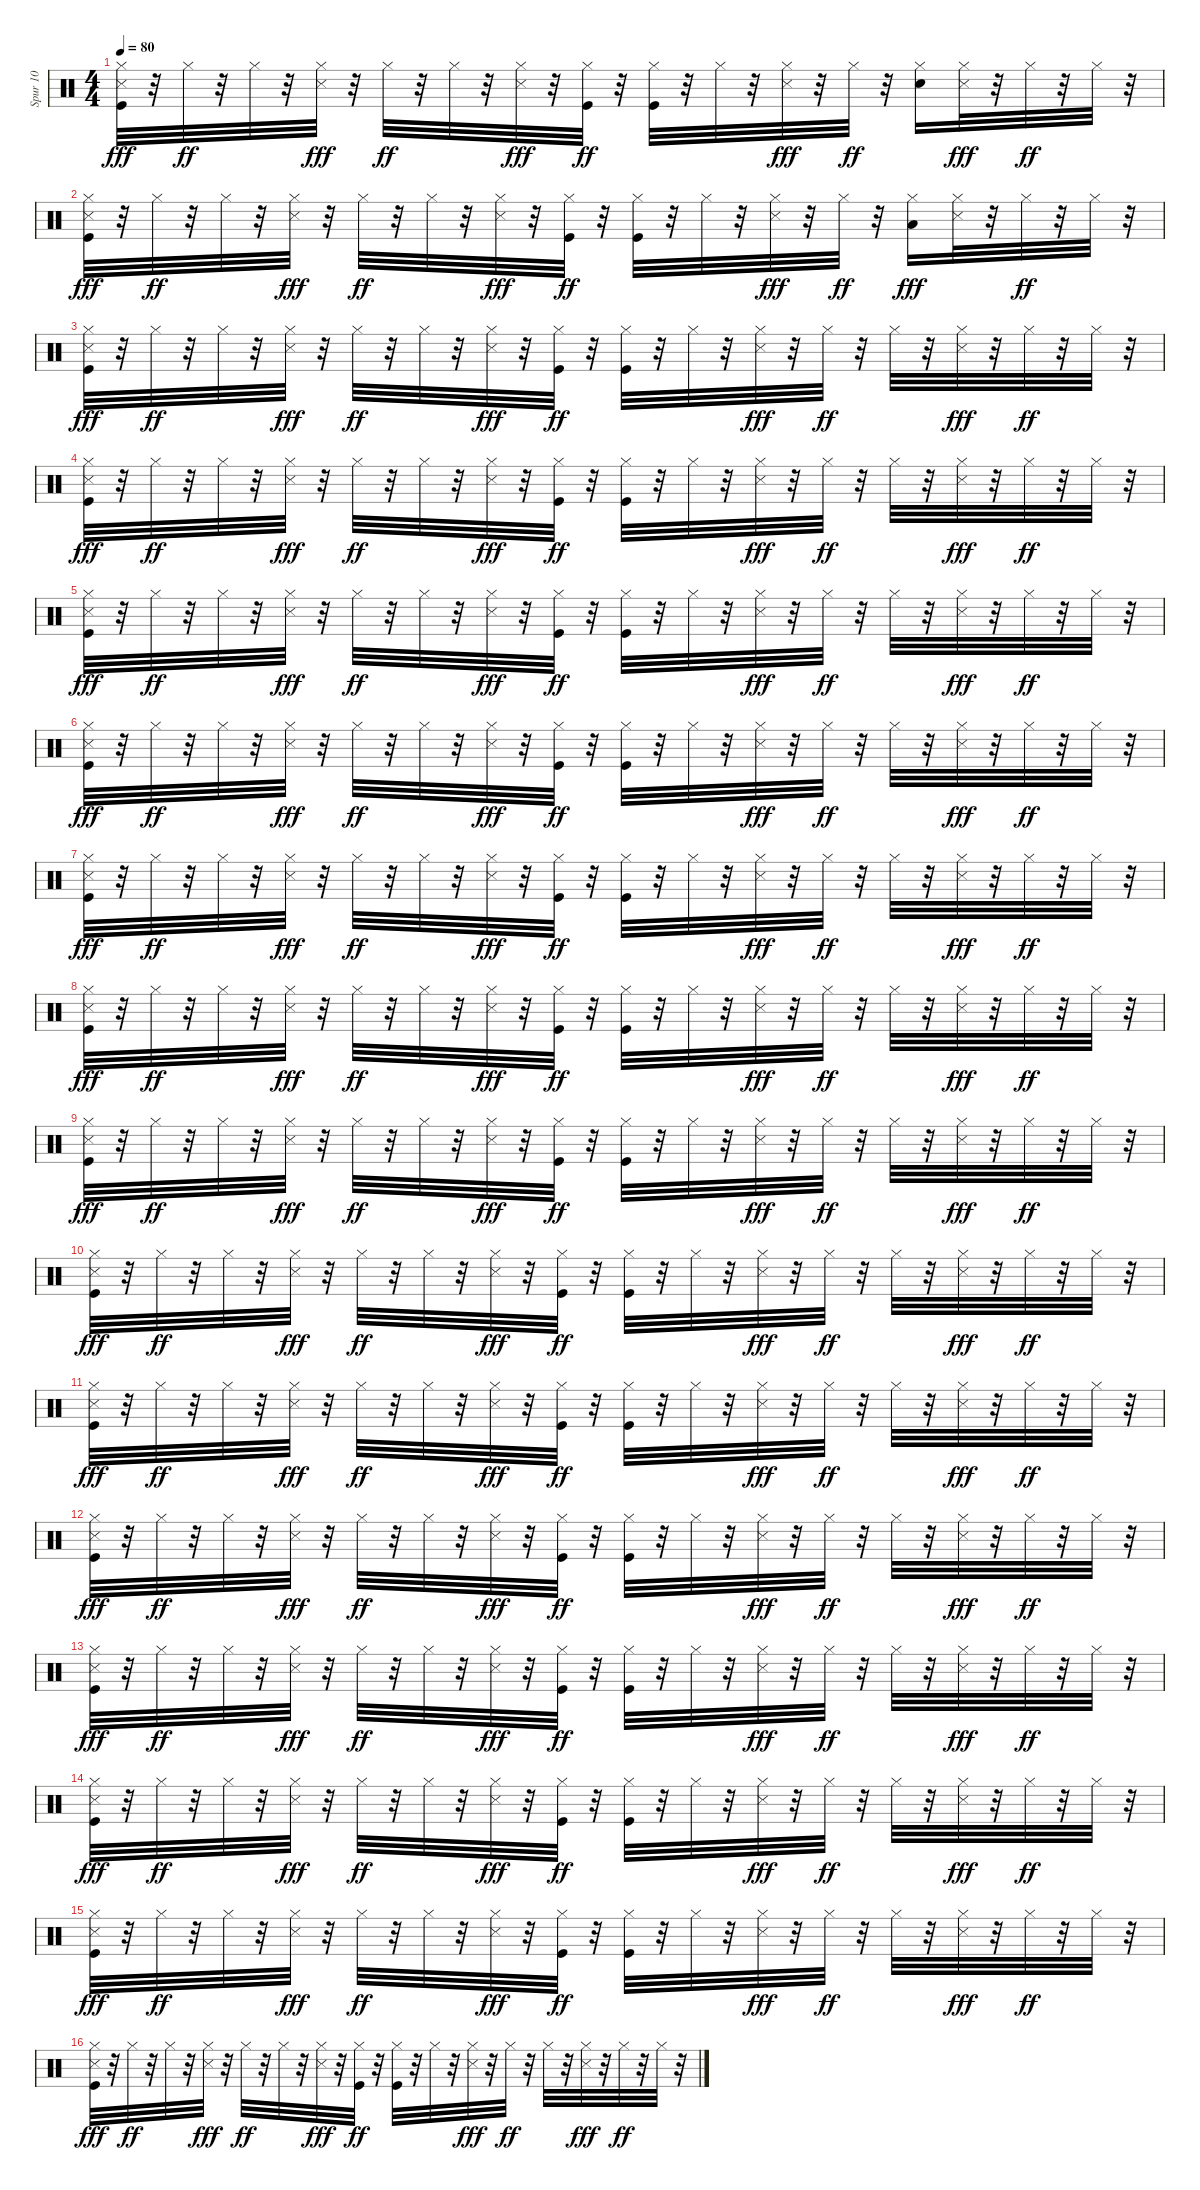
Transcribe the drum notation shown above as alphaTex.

\track ("Spur 10" "Spur 10") {instrument percussion}
\staff {score}
\articulation defaults
\ts (4 4)
\tempo 80
\clef neutral
\ks c
("Kick (hit)" "Hi-Hat (closed)" "Snare (side stick) 3").32{dy fff} r.32 "Hi-Hat (closed)".32{dy ff} r.32 "Hi-Hat (closed)".32 r.32 ("Hi-Hat (closed)" "Snare (side stick) 3").32{dy fff} r.32 "Hi-Hat (closed)".32{dy ff} r.32 "Hi-Hat (closed)".32 r.32 ("Hi-Hat (closed)" "Snare (side stick) 3").32{dy fff} r.32 ("Kick (hit)" "Hi-Hat (closed)").32{dy ff} r.32 ("Kick (hit)" "Hi-Hat (closed)").32 r.32 "Hi-Hat (closed)".32 r.32 ("Hi-Hat (closed)" "Snare (side stick) 3").32{dy fff} r.32 "Hi-Hat (closed)".32{dy ff} r.32 ("Snare (hit) 2" "Hi-Hat (closed)").16 ("Hi-Hat (closed)" "Snare (side stick) 3").32{dy fff} r.32 "Hi-Hat (closed)".32{dy ff} r.32 "Hi-Hat (closed)".32 r.32 |
("Kick (hit)" "Hi-Hat (closed)" "Snare (side stick) 3").32{dy fff} r.32 "Hi-Hat (closed)".32{dy ff} r.32 "Hi-Hat (closed)".32 r.32 ("Hi-Hat (closed)" "Snare (side stick) 3").32{dy fff} r.32 "Hi-Hat (closed)".32{dy ff} r.32 "Hi-Hat (closed)".32 r.32 ("Hi-Hat (closed)" "Snare (side stick) 3").32{dy fff} r.32 ("Kick (hit)" "Hi-Hat (closed)").32{dy ff} r.32 ("Kick (hit)" "Hi-Hat (closed)").32 r.32 "Hi-Hat (closed)".32 r.32 ("Hi-Hat (closed)" "Snare (side stick) 3").32{dy fff} r.32 "Hi-Hat (closed)".32{dy ff} r.32 ("Hi-Hat (closed)" "Low Floor Tom (hit)").16{dy fff} ("Hi-Hat (closed)" "Snare (side stick) 3").32 r.32 "Hi-Hat (closed)".32{dy ff} r.32 "Hi-Hat (closed)".32 r.32 |
("Kick (hit)" "Hi-Hat (closed)" "Snare (side stick) 3").32{dy fff} r.32 "Hi-Hat (closed)".32{dy ff} r.32 "Hi-Hat (closed)".32 r.32 ("Hi-Hat (closed)" "Snare (side stick) 3").32{dy fff} r.32 "Hi-Hat (closed)".32{dy ff} r.32 "Hi-Hat (closed)".32 r.32 ("Hi-Hat (closed)" "Snare (side stick) 3").32{dy fff} r.32 ("Kick (hit)" "Hi-Hat (closed)").32{dy ff} r.32 ("Kick (hit)" "Hi-Hat (closed)").32 r.32 "Hi-Hat (closed)".32 r.32 ("Hi-Hat (closed)" "Snare (side stick) 3").32{dy fff} r.32 "Hi-Hat (closed)".32{dy ff} r.32 "Hi-Hat (closed)".32 r.32 ("Hi-Hat (closed)" "Snare (side stick) 3").32{dy fff} r.32 "Hi-Hat (closed)".32{dy ff} r.32 "Hi-Hat (closed)".32 r.32 |
("Kick (hit)" "Hi-Hat (closed)" "Snare (side stick) 3").32{dy fff} r.32 "Hi-Hat (closed)".32{dy ff} r.32 "Hi-Hat (closed)".32 r.32 ("Hi-Hat (closed)" "Snare (side stick) 3").32{dy fff} r.32 "Hi-Hat (closed)".32{dy ff} r.32 "Hi-Hat (closed)".32 r.32 ("Hi-Hat (closed)" "Snare (side stick) 3").32{dy fff} r.32 ("Kick (hit)" "Hi-Hat (closed)").32{dy ff} r.32 ("Kick (hit)" "Hi-Hat (closed)").32 r.32 "Hi-Hat (closed)".32 r.32 ("Hi-Hat (closed)" "Snare (side stick) 3").32{dy fff} r.32 "Hi-Hat (closed)".32{dy ff} r.32 "Hi-Hat (closed)".32 r.32 ("Hi-Hat (closed)" "Snare (side stick) 3").32{dy fff} r.32 "Hi-Hat (closed)".32{dy ff} r.32 "Hi-Hat (closed)".32 r.32 |
("Kick (hit)" "Hi-Hat (closed)" "Snare (side stick) 3").32{dy fff} r.32 "Hi-Hat (closed)".32{dy ff} r.32 "Hi-Hat (closed)".32 r.32 ("Hi-Hat (closed)" "Snare (side stick) 3").32{dy fff} r.32 "Hi-Hat (closed)".32{dy ff} r.32 "Hi-Hat (closed)".32 r.32 ("Hi-Hat (closed)" "Snare (side stick) 3").32{dy fff} r.32 ("Kick (hit)" "Hi-Hat (closed)").32{dy ff} r.32 ("Kick (hit)" "Hi-Hat (closed)").32 r.32 "Hi-Hat (closed)".32 r.32 ("Hi-Hat (closed)" "Snare (side stick) 3").32{dy fff} r.32 "Hi-Hat (closed)".32{dy ff} r.32 "Hi-Hat (closed)".32 r.32 ("Hi-Hat (closed)" "Snare (side stick) 3").32{dy fff} r.32 "Hi-Hat (closed)".32{dy ff} r.32 "Hi-Hat (closed)".32 r.32 |
("Kick (hit)" "Hi-Hat (closed)" "Snare (side stick) 3").32{dy fff} r.32 "Hi-Hat (closed)".32{dy ff} r.32 "Hi-Hat (closed)".32 r.32 ("Hi-Hat (closed)" "Snare (side stick) 3").32{dy fff} r.32 "Hi-Hat (closed)".32{dy ff} r.32 "Hi-Hat (closed)".32 r.32 ("Hi-Hat (closed)" "Snare (side stick) 3").32{dy fff} r.32 ("Kick (hit)" "Hi-Hat (closed)").32{dy ff} r.32 ("Kick (hit)" "Hi-Hat (closed)").32 r.32 "Hi-Hat (closed)".32 r.32 ("Hi-Hat (closed)" "Snare (side stick) 3").32{dy fff} r.32 "Hi-Hat (closed)".32{dy ff} r.32 "Hi-Hat (closed)".32 r.32 ("Hi-Hat (closed)" "Snare (side stick) 3").32{dy fff} r.32 "Hi-Hat (closed)".32{dy ff} r.32 "Hi-Hat (closed)".32 r.32 |
("Kick (hit)" "Hi-Hat (closed)" "Snare (side stick) 3").32{dy fff} r.32 "Hi-Hat (closed)".32{dy ff} r.32 "Hi-Hat (closed)".32 r.32 ("Hi-Hat (closed)" "Snare (side stick) 3").32{dy fff} r.32 "Hi-Hat (closed)".32{dy ff} r.32 "Hi-Hat (closed)".32 r.32 ("Hi-Hat (closed)" "Snare (side stick) 3").32{dy fff} r.32 ("Kick (hit)" "Hi-Hat (closed)").32{dy ff} r.32 ("Kick (hit)" "Hi-Hat (closed)").32 r.32 "Hi-Hat (closed)".32 r.32 ("Hi-Hat (closed)" "Snare (side stick) 3").32{dy fff} r.32 "Hi-Hat (closed)".32{dy ff} r.32 "Hi-Hat (closed)".32 r.32 ("Hi-Hat (closed)" "Snare (side stick) 3").32{dy fff} r.32 "Hi-Hat (closed)".32{dy ff} r.32 "Hi-Hat (closed)".32 r.32 |
("Kick (hit)" "Hi-Hat (closed)" "Snare (side stick) 3").32{dy fff} r.32 "Hi-Hat (closed)".32{dy ff} r.32 "Hi-Hat (closed)".32 r.32 ("Hi-Hat (closed)" "Snare (side stick) 3").32{dy fff} r.32 "Hi-Hat (closed)".32{dy ff} r.32 "Hi-Hat (closed)".32 r.32 ("Hi-Hat (closed)" "Snare (side stick) 3").32{dy fff} r.32 ("Kick (hit)" "Hi-Hat (closed)").32{dy ff} r.32 ("Kick (hit)" "Hi-Hat (closed)").32 r.32 "Hi-Hat (closed)".32 r.32 ("Hi-Hat (closed)" "Snare (side stick) 3").32{dy fff} r.32 "Hi-Hat (closed)".32{dy ff} r.32 "Hi-Hat (closed)".32 r.32 ("Hi-Hat (closed)" "Snare (side stick) 3").32{dy fff} r.32 "Hi-Hat (closed)".32{dy ff} r.32 "Hi-Hat (closed)".32 r.32 |
("Kick (hit)" "Hi-Hat (closed)" "Snare (side stick) 3").32{dy fff} r.32 "Hi-Hat (closed)".32{dy ff} r.32 "Hi-Hat (closed)".32 r.32 ("Hi-Hat (closed)" "Snare (side stick) 3").32{dy fff} r.32 "Hi-Hat (closed)".32{dy ff} r.32 "Hi-Hat (closed)".32 r.32 ("Hi-Hat (closed)" "Snare (side stick) 3").32{dy fff} r.32 ("Kick (hit)" "Hi-Hat (closed)").32{dy ff} r.32 ("Kick (hit)" "Hi-Hat (closed)").32 r.32 "Hi-Hat (closed)".32 r.32 ("Hi-Hat (closed)" "Snare (side stick) 3").32{dy fff} r.32 "Hi-Hat (closed)".32{dy ff} r.32 "Hi-Hat (closed)".32 r.32 ("Hi-Hat (closed)" "Snare (side stick) 3").32{dy fff} r.32 "Hi-Hat (closed)".32{dy ff} r.32 "Hi-Hat (closed)".32 r.32 |
("Kick (hit)" "Hi-Hat (closed)" "Snare (side stick) 3").32{dy fff} r.32 "Hi-Hat (closed)".32{dy ff} r.32 "Hi-Hat (closed)".32 r.32 ("Hi-Hat (closed)" "Snare (side stick) 3").32{dy fff} r.32 "Hi-Hat (closed)".32{dy ff} r.32 "Hi-Hat (closed)".32 r.32 ("Hi-Hat (closed)" "Snare (side stick) 3").32{dy fff} r.32 ("Kick (hit)" "Hi-Hat (closed)").32{dy ff} r.32 ("Kick (hit)" "Hi-Hat (closed)").32 r.32 "Hi-Hat (closed)".32 r.32 ("Hi-Hat (closed)" "Snare (side stick) 3").32{dy fff} r.32 "Hi-Hat (closed)".32{dy ff} r.32 "Hi-Hat (closed)".32 r.32 ("Hi-Hat (closed)" "Snare (side stick) 3").32{dy fff} r.32 "Hi-Hat (closed)".32{dy ff} r.32 "Hi-Hat (closed)".32 r.32 |
("Kick (hit)" "Hi-Hat (closed)" "Snare (side stick) 3").32{dy fff} r.32 "Hi-Hat (closed)".32{dy ff} r.32 "Hi-Hat (closed)".32 r.32 ("Hi-Hat (closed)" "Snare (side stick) 3").32{dy fff} r.32 "Hi-Hat (closed)".32{dy ff} r.32 "Hi-Hat (closed)".32 r.32 ("Hi-Hat (closed)" "Snare (side stick) 3").32{dy fff} r.32 ("Kick (hit)" "Hi-Hat (closed)").32{dy ff} r.32 ("Kick (hit)" "Hi-Hat (closed)").32 r.32 "Hi-Hat (closed)".32 r.32 ("Hi-Hat (closed)" "Snare (side stick) 3").32{dy fff} r.32 "Hi-Hat (closed)".32{dy ff} r.32 "Hi-Hat (closed)".32 r.32 ("Hi-Hat (closed)" "Snare (side stick) 3").32{dy fff} r.32 "Hi-Hat (closed)".32{dy ff} r.32 "Hi-Hat (closed)".32 r.32 |
("Kick (hit)" "Hi-Hat (closed)" "Snare (side stick) 3").32{dy fff} r.32 "Hi-Hat (closed)".32{dy ff} r.32 "Hi-Hat (closed)".32 r.32 ("Hi-Hat (closed)" "Snare (side stick) 3").32{dy fff} r.32 "Hi-Hat (closed)".32{dy ff} r.32 "Hi-Hat (closed)".32 r.32 ("Hi-Hat (closed)" "Snare (side stick) 3").32{dy fff} r.32 ("Kick (hit)" "Hi-Hat (closed)").32{dy ff} r.32 ("Kick (hit)" "Hi-Hat (closed)").32 r.32 "Hi-Hat (closed)".32 r.32 ("Hi-Hat (closed)" "Snare (side stick) 3").32{dy fff} r.32 "Hi-Hat (closed)".32{dy ff} r.32 "Hi-Hat (closed)".32 r.32 ("Hi-Hat (closed)" "Snare (side stick) 3").32{dy fff} r.32 "Hi-Hat (closed)".32{dy ff} r.32 "Hi-Hat (closed)".32 r.32 |
("Kick (hit)" "Hi-Hat (closed)" "Snare (side stick) 3").32{dy fff} r.32 "Hi-Hat (closed)".32{dy ff} r.32 "Hi-Hat (closed)".32 r.32 ("Hi-Hat (closed)" "Snare (side stick) 3").32{dy fff} r.32 "Hi-Hat (closed)".32{dy ff} r.32 "Hi-Hat (closed)".32 r.32 ("Hi-Hat (closed)" "Snare (side stick) 3").32{dy fff} r.32 ("Kick (hit)" "Hi-Hat (closed)").32{dy ff} r.32 ("Kick (hit)" "Hi-Hat (closed)").32 r.32 "Hi-Hat (closed)".32 r.32 ("Hi-Hat (closed)" "Snare (side stick) 3").32{dy fff} r.32 "Hi-Hat (closed)".32{dy ff} r.32 "Hi-Hat (closed)".32 r.32 ("Hi-Hat (closed)" "Snare (side stick) 3").32{dy fff} r.32 "Hi-Hat (closed)".32{dy ff} r.32 "Hi-Hat (closed)".32 r.32 |
("Kick (hit)" "Hi-Hat (closed)" "Snare (side stick) 3").32{dy fff} r.32 "Hi-Hat (closed)".32{dy ff} r.32 "Hi-Hat (closed)".32 r.32 ("Hi-Hat (closed)" "Snare (side stick) 3").32{dy fff} r.32 "Hi-Hat (closed)".32{dy ff} r.32 "Hi-Hat (closed)".32 r.32 ("Hi-Hat (closed)" "Snare (side stick) 3").32{dy fff} r.32 ("Kick (hit)" "Hi-Hat (closed)").32{dy ff} r.32 ("Kick (hit)" "Hi-Hat (closed)").32 r.32 "Hi-Hat (closed)".32 r.32 ("Hi-Hat (closed)" "Snare (side stick) 3").32{dy fff} r.32 "Hi-Hat (closed)".32{dy ff} r.32 "Hi-Hat (closed)".32 r.32 ("Hi-Hat (closed)" "Snare (side stick) 3").32{dy fff} r.32 "Hi-Hat (closed)".32{dy ff} r.32 "Hi-Hat (closed)".32 r.32 |
("Kick (hit)" "Hi-Hat (closed)" "Snare (side stick) 3").32{dy fff} r.32 "Hi-Hat (closed)".32{dy ff} r.32 "Hi-Hat (closed)".32 r.32 ("Hi-Hat (closed)" "Snare (side stick) 3").32{dy fff} r.32 "Hi-Hat (closed)".32{dy ff} r.32 "Hi-Hat (closed)".32 r.32 ("Hi-Hat (closed)" "Snare (side stick) 3").32{dy fff} r.32 ("Kick (hit)" "Hi-Hat (closed)").32{dy ff} r.32 ("Kick (hit)" "Hi-Hat (closed)").32 r.32 "Hi-Hat (closed)".32 r.32 ("Hi-Hat (closed)" "Snare (side stick) 3").32{dy fff} r.32 "Hi-Hat (closed)".32{dy ff} r.32 "Hi-Hat (closed)".32 r.32 ("Hi-Hat (closed)" "Snare (side stick) 3").32{dy fff} r.32 "Hi-Hat (closed)".32{dy ff} r.32 "Hi-Hat (closed)".32 r.32 |
("Kick (hit)" "Hi-Hat (closed)" "Snare (side stick) 3").32{dy fff} r.32 "Hi-Hat (closed)".32{dy ff} r.32 "Hi-Hat (closed)".32 r.32 ("Hi-Hat (closed)" "Snare (side stick) 3").32{dy fff} r.32 "Hi-Hat (closed)".32{dy ff} r.32 "Hi-Hat (closed)".32 r.32 ("Hi-Hat (closed)" "Snare (side stick) 3").32{dy fff} r.32 ("Kick (hit)" "Hi-Hat (closed)").32{dy ff} r.32 ("Kick (hit)" "Hi-Hat (closed)").32 r.32 "Hi-Hat (closed)".32 r.32 ("Hi-Hat (closed)" "Snare (side stick) 3").32{dy fff} r.32 "Hi-Hat (closed)".32{dy ff} r.32 "Hi-Hat (closed)".32 r.32 ("Hi-Hat (closed)" "Snare (side stick) 3").32{dy fff} r.32 "Hi-Hat (closed)".32{dy ff} r.32 "Hi-Hat (closed)".32 r.32
